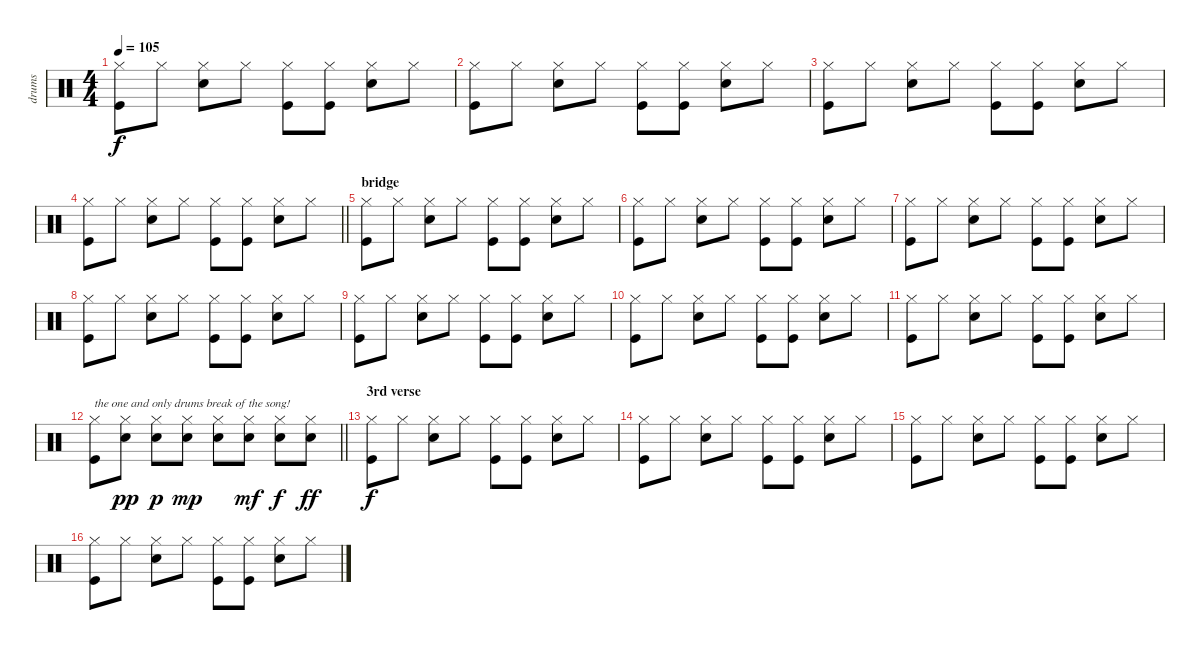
\track ("drums" "drums") {instrument percussion}
\staff {score}
\articulation defaults
\ts (4 4)
\tempo 105
\clef neutral
\ks c
("Hi-Hat (closed)" "Kick (hit)").8{dy f} "Hi-Hat (closed)".8 ("Hi-Hat (closed)" "Snare (hit) 2").8 "Hi-Hat (closed)".8 ("Hi-Hat (closed)" "Kick (hit)").8 ("Hi-Hat (closed)" "Kick (hit)").8 ("Hi-Hat (closed)" "Snare (hit) 2").8 "Hi-Hat (closed)".8 |
("Hi-Hat (closed)" "Kick (hit)").8 "Hi-Hat (closed)".8 ("Hi-Hat (closed)" "Snare (hit) 2").8 "Hi-Hat (closed)".8 ("Hi-Hat (closed)" "Kick (hit)").8 ("Hi-Hat (closed)" "Kick (hit)").8 ("Hi-Hat (closed)" "Snare (hit) 2").8 "Hi-Hat (closed)".8 |
("Hi-Hat (closed)" "Kick (hit)").8 "Hi-Hat (closed)".8 ("Hi-Hat (closed)" "Snare (hit) 2").8 "Hi-Hat (closed)".8 ("Hi-Hat (closed)" "Kick (hit)").8 ("Hi-Hat (closed)" "Kick (hit)").8 ("Hi-Hat (closed)" "Snare (hit) 2").8 "Hi-Hat (closed)".8 |
\barLineRight lightlight
("Hi-Hat (closed)" "Kick (hit)").8 "Hi-Hat (closed)".8 ("Hi-Hat (closed)" "Snare (hit) 2").8 "Hi-Hat (closed)".8 ("Hi-Hat (closed)" "Kick (hit)").8 ("Hi-Hat (closed)" "Kick (hit)").8 ("Hi-Hat (closed)" "Snare (hit) 2").8 "Hi-Hat (closed)".8 |
\section ("" "bridge")
("Hi-Hat (closed)" "Kick (hit)").8 "Hi-Hat (closed)".8 ("Hi-Hat (closed)" "Snare (hit) 2").8 "Hi-Hat (closed)".8 ("Hi-Hat (closed)" "Kick (hit)").8 ("Hi-Hat (closed)" "Kick (hit)").8 ("Hi-Hat (closed)" "Snare (hit) 2").8 "Hi-Hat (closed)".8 |
("Hi-Hat (closed)" "Kick (hit)").8 "Hi-Hat (closed)".8 ("Hi-Hat (closed)" "Snare (hit) 2").8 "Hi-Hat (closed)".8 ("Hi-Hat (closed)" "Kick (hit)").8 ("Hi-Hat (closed)" "Kick (hit)").8 ("Hi-Hat (closed)" "Snare (hit) 2").8 "Hi-Hat (closed)".8 |
("Hi-Hat (closed)" "Kick (hit)").8 "Hi-Hat (closed)".8 ("Hi-Hat (closed)" "Snare (hit) 2").8 "Hi-Hat (closed)".8 ("Hi-Hat (closed)" "Kick (hit)").8 ("Hi-Hat (closed)" "Kick (hit)").8 ("Hi-Hat (closed)" "Snare (hit) 2").8 "Hi-Hat (closed)".8 |
("Hi-Hat (closed)" "Kick (hit)").8 "Hi-Hat (closed)".8 ("Hi-Hat (closed)" "Snare (hit) 2").8 "Hi-Hat (closed)".8 ("Hi-Hat (closed)" "Kick (hit)").8 ("Hi-Hat (closed)" "Kick (hit)").8 ("Hi-Hat (closed)" "Snare (hit) 2").8 "Hi-Hat (closed)".8 |
("Hi-Hat (closed)" "Kick (hit)").8 "Hi-Hat (closed)".8 ("Hi-Hat (closed)" "Snare (hit) 2").8 "Hi-Hat (closed)".8 ("Hi-Hat (closed)" "Kick (hit)").8 ("Hi-Hat (closed)" "Kick (hit)").8 ("Hi-Hat (closed)" "Snare (hit) 2").8 "Hi-Hat (closed)".8 |
("Hi-Hat (closed)" "Kick (hit)").8 "Hi-Hat (closed)".8 ("Hi-Hat (closed)" "Snare (hit) 2").8 "Hi-Hat (closed)".8 ("Hi-Hat (closed)" "Kick (hit)").8 ("Hi-Hat (closed)" "Kick (hit)").8 ("Hi-Hat (closed)" "Snare (hit) 2").8 "Hi-Hat (closed)".8 |
("Hi-Hat (closed)" "Kick (hit)").8 "Hi-Hat (closed)".8 ("Hi-Hat (closed)" "Snare (hit) 2").8 "Hi-Hat (closed)".8 ("Hi-Hat (closed)" "Kick (hit)").8 ("Hi-Hat (closed)" "Kick (hit)").8 ("Hi-Hat (closed)" "Snare (hit) 2").8 "Hi-Hat (closed)".8 |
\barLineRight lightlight
("Hi-Hat (closed)" "Kick (hit)").8{txt "the one and only drums break of the song!"} ("Hi-Hat (closed)" "Snare (hit) 2").8{dy pp} ("Hi-Hat (closed)" "Snare (hit) 2").8{dy p} ("Hi-Hat (closed)" "Snare (hit) 2").8{dy mp} ("Hi-Hat (closed)" "Snare (hit) 2").8 ("Hi-Hat (closed)" "Snare (hit) 2").8{dy mf} ("Hi-Hat (closed)" "Snare (hit) 2").8{dy f} ("Hi-Hat (closed)" "Snare (hit) 2").8{dy ff} |
\section ("" "3rd verse")
("Hi-Hat (closed)" "Kick (hit)").8{dy f} "Hi-Hat (closed)".8 ("Hi-Hat (closed)" "Snare (hit) 2").8 "Hi-Hat (closed)".8 ("Hi-Hat (closed)" "Kick (hit)").8 ("Hi-Hat (closed)" "Kick (hit)").8 ("Hi-Hat (closed)" "Snare (hit) 2").8 "Hi-Hat (closed)".8 |
("Hi-Hat (closed)" "Kick (hit)").8 "Hi-Hat (closed)".8 ("Hi-Hat (closed)" "Snare (hit) 2").8 "Hi-Hat (closed)".8 ("Hi-Hat (closed)" "Kick (hit)").8 ("Hi-Hat (closed)" "Kick (hit)").8 ("Hi-Hat (closed)" "Snare (hit) 2").8 "Hi-Hat (closed)".8 |
("Hi-Hat (closed)" "Kick (hit)").8 "Hi-Hat (closed)".8 ("Hi-Hat (closed)" "Snare (hit) 2").8 "Hi-Hat (closed)".8 ("Hi-Hat (closed)" "Kick (hit)").8 ("Hi-Hat (closed)" "Kick (hit)").8 ("Hi-Hat (closed)" "Snare (hit) 2").8 "Hi-Hat (closed)".8 |
("Hi-Hat (closed)" "Kick (hit)").8 "Hi-Hat (closed)".8 ("Hi-Hat (closed)" "Snare (hit) 2").8 "Hi-Hat (closed)".8 ("Hi-Hat (closed)" "Kick (hit)").8 ("Hi-Hat (closed)" "Kick (hit)").8 ("Hi-Hat (closed)" "Snare (hit) 2").8 "Hi-Hat (closed)".8
